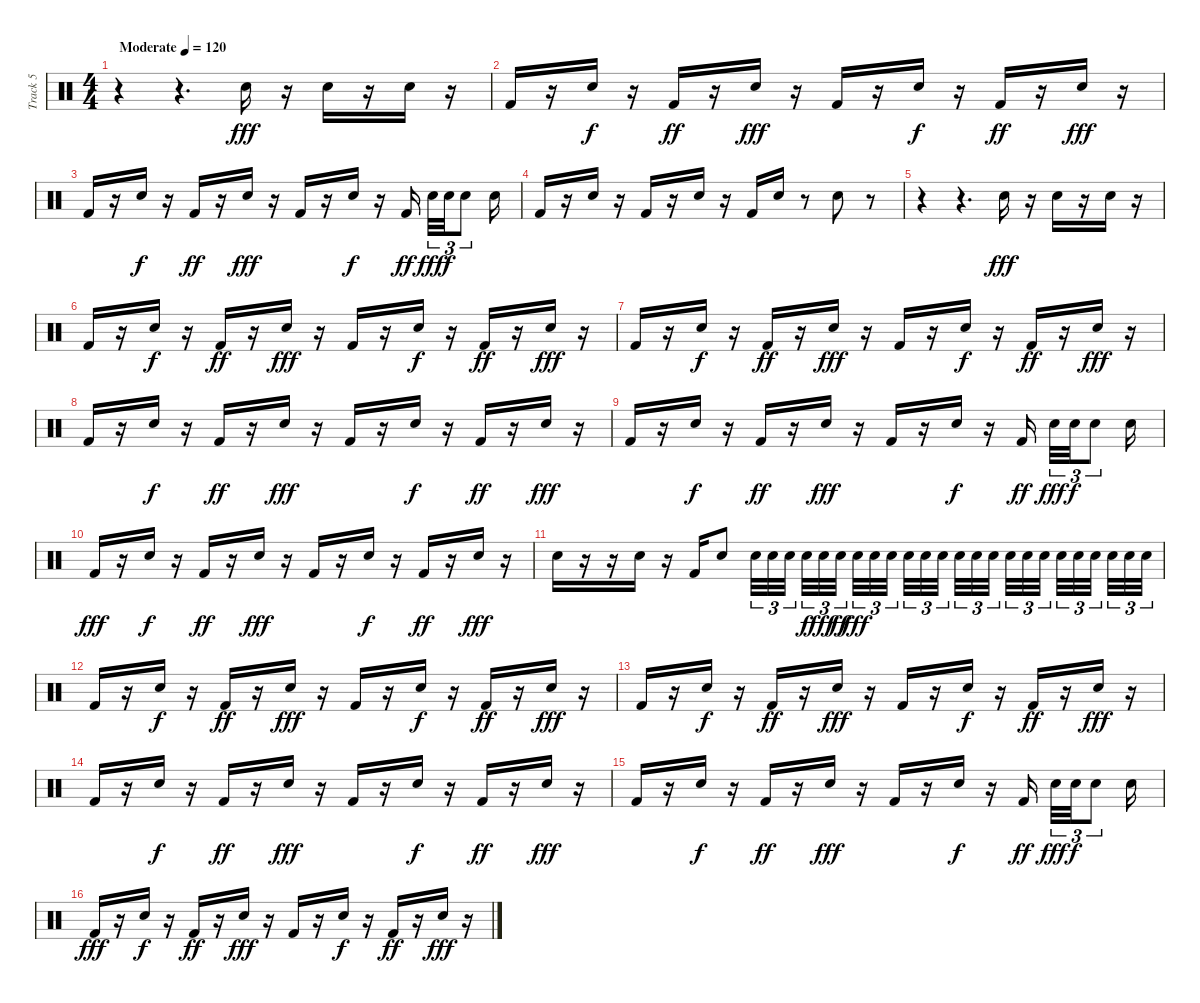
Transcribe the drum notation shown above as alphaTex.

\track ("Track 5" "Track 5") {instrument percussion}
\staff {score}
\articulation defaults
\ts (4 4)
\tempo (120 "Moderate")
\clef neutral
\ks c
r.4{dy fff} r.4{d} "Electric Snare (hit)".16 r.16 "Electric Snare (hit)".16 r.16 "Electric Snare (hit)".16 r.16 |
"Kick (hit) 2".16 r.16 "Electric Snare (hit)".16{dy f} r.16 "Kick (hit) 2".16{dy ff} r.16 "Electric Snare (hit)".16{dy fff} r.16 "Kick (hit) 2".16 r.16 "Electric Snare (hit)".16{dy f} r.16 "Kick (hit) 2".16{dy ff} r.16 "Electric Snare (hit)".16{dy fff} r.16 |
"Kick (hit) 2".16 r.16 "Electric Snare (hit)".16{dy f} r.16 "Kick (hit) 2".16{dy ff} r.16 "Electric Snare (hit)".16{dy fff} r.16 "Kick (hit) 2".16 r.16 "Electric Snare (hit)".16{dy f} r.16 "Kick (hit) 2".16{dy ff beam splitsecondary} "Electric Snare (hit)".32{tu (3 2) dy fff} "Electric Snare (hit)".32{tu (3 2) dy f} "Electric Snare (hit)".8{tu (3 2)} "Electric Snare (hit)".16 |
"Kick (hit) 2".16 r.16 "Electric Snare (hit)".16 r.16 "Kick (hit) 2".16 r.16 "Electric Snare (hit)".16 r.16 "Kick (hit) 2".16 "Electric Snare (hit)".16 r.8 "Electric Snare (hit)".8 r.8 |
r.4 r.4{d} "Electric Snare (hit)".16{dy fff} r.16 "Electric Snare (hit)".16 r.16 "Electric Snare (hit)".16 r.16 |
"Kick (hit) 2".16 r.16 "Electric Snare (hit)".16{dy f} r.16 "Kick (hit) 2".16{dy ff} r.16 "Electric Snare (hit)".16{dy fff} r.16 "Kick (hit) 2".16 r.16 "Electric Snare (hit)".16{dy f} r.16 "Kick (hit) 2".16{dy ff} r.16 "Electric Snare (hit)".16{dy fff} r.16 |
"Kick (hit) 2".16 r.16 "Electric Snare (hit)".16{dy f} r.16 "Kick (hit) 2".16{dy ff} r.16 "Electric Snare (hit)".16{dy fff} r.16 "Kick (hit) 2".16 r.16 "Electric Snare (hit)".16{dy f} r.16 "Kick (hit) 2".16{dy ff} r.16 "Electric Snare (hit)".16{dy fff} r.16 |
"Kick (hit) 2".16 r.16 "Electric Snare (hit)".16{dy f} r.16 "Kick (hit) 2".16{dy ff} r.16 "Electric Snare (hit)".16{dy fff} r.16 "Kick (hit) 2".16 r.16 "Electric Snare (hit)".16{dy f} r.16 "Kick (hit) 2".16{dy ff} r.16 "Electric Snare (hit)".16{dy fff} r.16 |
"Kick (hit) 2".16 r.16 "Electric Snare (hit)".16{dy f} r.16 "Kick (hit) 2".16{dy ff} r.16 "Electric Snare (hit)".16{dy fff} r.16 "Kick (hit) 2".16 r.16 "Electric Snare (hit)".16{dy f} r.16 "Kick (hit) 2".16{dy ff beam splitsecondary} "Electric Snare (hit)".32{tu (3 2) dy fff} "Electric Snare (hit)".32{tu (3 2) dy f} "Electric Snare (hit)".8{tu (3 2)} "Electric Snare (hit)".16 |
"Kick (hit) 2".16{dy fff} r.16 "Electric Snare (hit)".16{dy f} r.16 "Kick (hit) 2".16{dy ff} r.16 "Electric Snare (hit)".16{dy fff} r.16 "Kick (hit) 2".16 r.16 "Electric Snare (hit)".16{dy f} r.16 "Kick (hit) 2".16{dy ff} r.16 "Electric Snare (hit)".16{dy fff} r.16 |
"Electric Snare (hit)".16 r.16 r.16 "Electric Snare (hit)".16 r.16 "Kick (hit) 2".16 "Electric Snare (hit)".8 "Electric Snare (hit)".32{tu (3 2)} "Electric Snare (hit)".32{tu (3 2)} "Electric Snare (hit)".32{tu (3 2) beam splitsecondary} "Electric Snare (hit)".32{tu (3 2) dy f} "Electric Snare (hit)".32{tu (3 2) dy fff} "Electric Snare (hit)".32{tu (3 2) dy ff beam splitsecondary} "Electric Snare (hit)".32{tu (3 2) dy fff} "Electric Snare (hit)".32{tu (3 2)} "Electric Snare (hit)".32{tu (3 2) beam splitsecondary} "Electric Snare (hit)".32{tu (3 2)} "Electric Snare (hit)".32{tu (3 2)} "Electric Snare (hit)".32{tu (3 2)} "Electric Snare (hit)".32{tu (3 2)} "Electric Snare (hit)".32{tu (3 2)} "Electric Snare (hit)".32{tu (3 2) beam splitsecondary} "Electric Snare (hit)".32{tu (3 2)} "Electric Snare (hit)".32{tu (3 2)} "Electric Snare (hit)".32{tu (3 2) beam splitsecondary} "Electric Snare (hit)".32{tu (3 2)} "Electric Snare (hit)".32{tu (3 2)} "Electric Snare (hit)".32{tu (3 2) beam splitsecondary} "Electric Snare (hit)".32{tu (3 2)} "Electric Snare (hit)".32{tu (3 2)} "Electric Snare (hit)".32{tu (3 2)} |
"Kick (hit) 2".16 r.16 "Electric Snare (hit)".16{dy f} r.16 "Kick (hit) 2".16{dy ff} r.16 "Electric Snare (hit)".16{dy fff} r.16 "Kick (hit) 2".16 r.16 "Electric Snare (hit)".16{dy f} r.16 "Kick (hit) 2".16{dy ff} r.16 "Electric Snare (hit)".16{dy fff} r.16 |
"Kick (hit) 2".16 r.16 "Electric Snare (hit)".16{dy f} r.16 "Kick (hit) 2".16{dy ff} r.16 "Electric Snare (hit)".16{dy fff} r.16 "Kick (hit) 2".16 r.16 "Electric Snare (hit)".16{dy f} r.16 "Kick (hit) 2".16{dy ff} r.16 "Electric Snare (hit)".16{dy fff} r.16 |
"Kick (hit) 2".16 r.16 "Electric Snare (hit)".16{dy f} r.16 "Kick (hit) 2".16{dy ff} r.16 "Electric Snare (hit)".16{dy fff} r.16 "Kick (hit) 2".16 r.16 "Electric Snare (hit)".16{dy f} r.16 "Kick (hit) 2".16{dy ff} r.16 "Electric Snare (hit)".16{dy fff} r.16 |
"Kick (hit) 2".16 r.16 "Electric Snare (hit)".16{dy f} r.16 "Kick (hit) 2".16{dy ff} r.16 "Electric Snare (hit)".16{dy fff} r.16 "Kick (hit) 2".16 r.16 "Electric Snare (hit)".16{dy f} r.16 "Kick (hit) 2".16{dy ff beam splitsecondary} "Electric Snare (hit)".32{tu (3 2) dy fff} "Electric Snare (hit)".32{tu (3 2) dy f} "Electric Snare (hit)".8{tu (3 2)} "Electric Snare (hit)".16 |
"Kick (hit) 2".16{dy fff} r.16 "Electric Snare (hit)".16{dy f} r.16 "Kick (hit) 2".16{dy ff} r.16 "Electric Snare (hit)".16{dy fff} r.16 "Kick (hit) 2".16 r.16 "Electric Snare (hit)".16{dy f} r.16 "Kick (hit) 2".16{dy ff} r.16 "Electric Snare (hit)".16{dy fff} r.16
